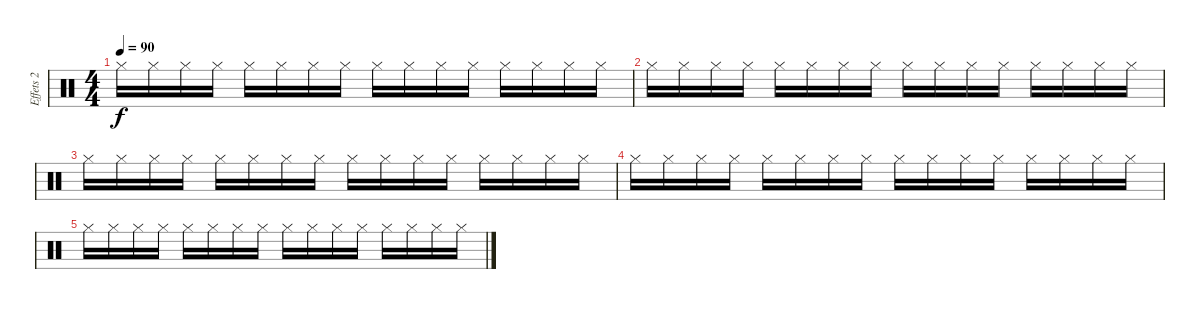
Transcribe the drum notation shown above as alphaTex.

\track ("Effets 2" "Effets 2") {instrument percussion}
\staff {score}
\articulation defaults
\ts (4 4)
\tempo 90
\clef neutral
\ks c "Hi-Hat (closed)".16{dy f balance 0} "Hi-Hat (closed)".16 "Hi-Hat (closed)".16{balance 16} "Hi-Hat (closed)".16 "Hi-Hat (closed)".16{balance 0} "Hi-Hat (closed)".16 "Hi-Hat (closed)".16{balance 16} "Hi-Hat (closed)".16 "Hi-Hat (closed)".16{balance 0} "Hi-Hat (closed)".16 "Hi-Hat (closed)".16{balance 16} "Hi-Hat (closed)".16 "Hi-Hat (closed)".16{balance 0} "Hi-Hat (closed)".16 "Hi-Hat (closed)".16{balance 16} "Hi-Hat (closed)".16
|
"Hi-Hat (closed)".16{balance 0} "Hi-Hat (closed)".16 "Hi-Hat (closed)".16{balance 16} "Hi-Hat (closed)".16 "Hi-Hat (closed)".16{balance 0} "Hi-Hat (closed)".16 "Hi-Hat (closed)".16{balance 16} "Hi-Hat (closed)".16 "Hi-Hat (closed)".16{balance 0} "Hi-Hat (closed)".16 "Hi-Hat (closed)".16{balance 16} "Hi-Hat (closed)".16 "Hi-Hat (closed)".16{balance 0} "Hi-Hat (closed)".16 "Hi-Hat (closed)".16{balance 16} "Hi-Hat (closed)".16 |
"Hi-Hat (closed)".16{balance 0} "Hi-Hat (closed)".16 "Hi-Hat (closed)".16{balance 16} "Hi-Hat (closed)".16 "Hi-Hat (closed)".16{balance 0} "Hi-Hat (closed)".16 "Hi-Hat (closed)".16{balance 16} "Hi-Hat (closed)".16 "Hi-Hat (closed)".16{balance 0} "Hi-Hat (closed)".16 "Hi-Hat (closed)".16{balance 16} "Hi-Hat (closed)".16 "Hi-Hat (closed)".16{balance 0} "Hi-Hat (closed)".16 "Hi-Hat (closed)".16{balance 16} "Hi-Hat (closed)".16 |
"Hi-Hat (closed)".16{balance 0} "Hi-Hat (closed)".16 "Hi-Hat (closed)".16{balance 16} "Hi-Hat (closed)".16 "Hi-Hat (closed)".16{balance 0} "Hi-Hat (closed)".16 "Hi-Hat (closed)".16{balance 16} "Hi-Hat (closed)".16 "Hi-Hat (closed)".16{balance 0} "Hi-Hat (closed)".16 "Hi-Hat (closed)".16{balance 16} "Hi-Hat (closed)".16 "Hi-Hat (closed)".16{balance 0} "Hi-Hat (closed)".16 "Hi-Hat (closed)".16{balance 16} "Hi-Hat (closed)".16 |
"Hi-Hat (closed)".16{balance 0} "Hi-Hat (closed)".16 "Hi-Hat (closed)".16{balance 16} "Hi-Hat (closed)".16 "Hi-Hat (closed)".16{balance 0} "Hi-Hat (closed)".16 "Hi-Hat (closed)".16{balance 16} "Hi-Hat (closed)".16 "Hi-Hat (closed)".16{balance 0} "Hi-Hat (closed)".16 "Hi-Hat (closed)".16{balance 16} "Hi-Hat (closed)".16 "Hi-Hat (closed)".16{balance 0} "Hi-Hat (closed)".16 "Hi-Hat (closed)".16{balance 16} "Hi-Hat (closed)".16
